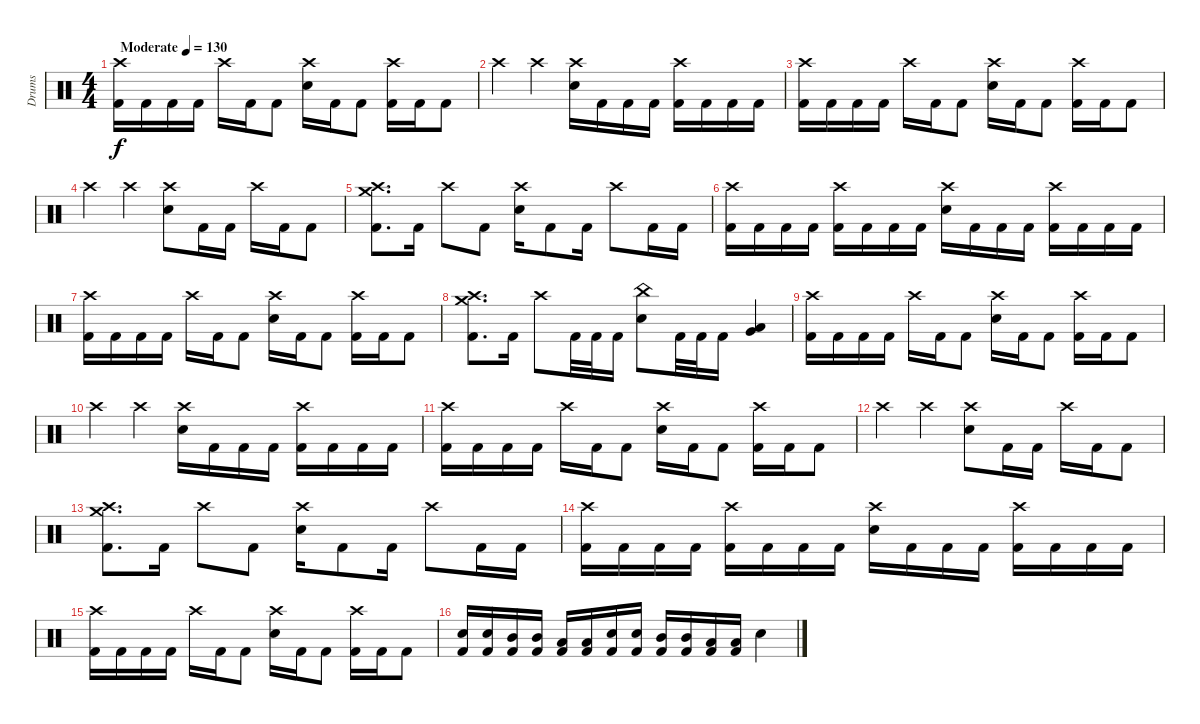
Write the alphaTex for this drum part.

\track ("Drums" "Drums") {instrument percussion}
\staff {score}
\articulation defaults
\ts (4 4)
\tempo (130 "Moderate")
\clef neutral
\ks c
("Crash high (hit)" "Kick (hit) 2").16{dy f} "Kick (hit) 2".16 "Kick (hit) 2".16 "Kick (hit) 2".16 "Crash high (hit)".16 "Kick (hit) 2".16 "Kick (hit) 2".8 ("Crash high (hit)" "Electric Snare (hit)").16 "Kick (hit) 2".16 "Kick (hit) 2".8 ("Crash high (hit)" "Kick (hit) 2").16 "Kick (hit) 2".16 "Kick (hit) 2".8 |
"Crash high (hit)".4 "Crash high (hit)".4 ("Crash high (hit)" "Electric Snare (hit)").16 "Kick (hit) 2".16 "Kick (hit) 2".16 "Kick (hit) 2".16 ("Crash high (hit)" "Kick (hit) 2").16 "Kick (hit) 2".16 "Kick (hit) 2".16 "Kick (hit) 2".16 |
("Crash high (hit)" "Kick (hit) 2").16 "Kick (hit) 2".16 "Kick (hit) 2".16 "Kick (hit) 2".16 "Crash high (hit)".16 "Kick (hit) 2".16 "Kick (hit) 2".8 ("Crash high (hit)" "Electric Snare (hit)").16 "Kick (hit) 2".16 "Kick (hit) 2".8 ("Crash high (hit)" "Kick (hit) 2").16 "Kick (hit) 2".16 "Kick (hit) 2".8 |
"Crash high (hit)".4 "Crash high (hit)".4 ("Crash high (hit)" "Electric Snare (hit)").8 "Kick (hit) 2".16 "Kick (hit) 2".16 "Crash high (hit)".16 "Kick (hit) 2".16 "Kick (hit) 2".8 |
("Crash high (hit)" "Crash medium (hit)" "Kick (hit) 2").8{d} "Kick (hit) 2".16 "Crash high (hit)".8 "Kick (hit) 2".8 ("Crash high (hit)" "Electric Snare (hit)").16 "Kick (hit) 2".8 "Kick (hit) 2".16 "Crash high (hit)".8 "Kick (hit) 2".16 "Kick (hit) 2".16 |
("Crash high (hit)" "Kick (hit) 2").16 "Kick (hit) 2".16 "Kick (hit) 2".16 "Kick (hit) 2".16 ("Crash high (hit)" "Kick (hit) 2").16 "Kick (hit) 2".16 "Kick (hit) 2".16 "Kick (hit) 2".16 ("Crash high (hit)" "Electric Snare (hit)").16 "Kick (hit) 2".16 "Kick (hit) 2".16 "Kick (hit) 2".16 ("Crash high (hit)" "Kick (hit) 2").16 "Kick (hit) 2".16 "Kick (hit) 2".16 "Kick (hit) 2".16 |
("Crash high (hit)" "Kick (hit) 2").16 "Kick (hit) 2".16 "Kick (hit) 2".16 "Kick (hit) 2".16 "Crash high (hit)".16 "Kick (hit) 2".16 "Kick (hit) 2".8 ("Crash high (hit)" "Electric Snare (hit)").16 "Kick (hit) 2".16 "Kick (hit) 2".8 ("Crash high (hit)" "Kick (hit) 2").16 "Kick (hit) 2".16 "Kick (hit) 2".8 |
("Crash high (hit)" "Crash medium (hit)" "Kick (hit) 2").8{d} "Kick (hit) 2".16 "Crash high (hit)".8 "Kick (hit) 2".32 "Kick (hit) 2".32 "Kick (hit) 2".16 ("China (hit)" "Electric Snare (hit)").8 "Kick (hit) 2".32 "Kick (hit) 2".32 "Kick (hit) 2".16 ("Very Low Tom (hit)" "Low Floor Tom (hit)").4 |
("Crash high (hit)" "Kick (hit) 2").16 "Kick (hit) 2".16 "Kick (hit) 2".16 "Kick (hit) 2".16 "Crash high (hit)".16 "Kick (hit) 2".16 "Kick (hit) 2".8 ("Crash high (hit)" "Electric Snare (hit)").16 "Kick (hit) 2".16 "Kick (hit) 2".8 ("Crash high (hit)" "Kick (hit) 2").16 "Kick (hit) 2".16 "Kick (hit) 2".8 |
"Crash high (hit)".4 "Crash high (hit)".4 ("Crash high (hit)" "Electric Snare (hit)").16 "Kick (hit) 2".16 "Kick (hit) 2".16 "Kick (hit) 2".16 ("Crash high (hit)" "Kick (hit) 2").16 "Kick (hit) 2".16 "Kick (hit) 2".16 "Kick (hit) 2".16 |
("Crash high (hit)" "Kick (hit) 2").16 "Kick (hit) 2".16 "Kick (hit) 2".16 "Kick (hit) 2".16 "Crash high (hit)".16 "Kick (hit) 2".16 "Kick (hit) 2".8 ("Crash high (hit)" "Electric Snare (hit)").16 "Kick (hit) 2".16 "Kick (hit) 2".8 ("Crash high (hit)" "Kick (hit) 2").16 "Kick (hit) 2".16 "Kick (hit) 2".8 |
"Crash high (hit)".4 "Crash high (hit)".4 ("Crash high (hit)" "Electric Snare (hit)").8 "Kick (hit) 2".16 "Kick (hit) 2".16 "Crash high (hit)".16 "Kick (hit) 2".16 "Kick (hit) 2".8 |
("Crash high (hit)" "Crash medium (hit)" "Kick (hit) 2").8{d} "Kick (hit) 2".16 "Crash high (hit)".8 "Kick (hit) 2".8 ("Crash high (hit)" "Electric Snare (hit)").16 "Kick (hit) 2".8 "Kick (hit) 2".16 "Crash high (hit)".8 "Kick (hit) 2".16 "Kick (hit) 2".16 |
("Crash high (hit)" "Kick (hit) 2").16 "Kick (hit) 2".16 "Kick (hit) 2".16 "Kick (hit) 2".16 ("Crash high (hit)" "Kick (hit) 2").16 "Kick (hit) 2".16 "Kick (hit) 2".16 "Kick (hit) 2".16 ("Crash high (hit)" "Electric Snare (hit)").16 "Kick (hit) 2".16 "Kick (hit) 2".16 "Kick (hit) 2".16 ("Crash high (hit)" "Kick (hit) 2").16 "Kick (hit) 2".16 "Kick (hit) 2".16 "Kick (hit) 2".16 |
("Crash high (hit)" "Kick (hit) 2").16 "Kick (hit) 2".16 "Kick (hit) 2".16 "Kick (hit) 2".16 "Crash high (hit)".16 "Kick (hit) 2".16 "Kick (hit) 2".8 ("Crash high (hit)" "Electric Snare (hit)").16 "Kick (hit) 2".16 "Kick (hit) 2".8 ("Crash high (hit)" "Kick (hit) 2").16 "Kick (hit) 2".16 "Kick (hit) 2".8 |
("Electric Snare (hit)" "Kick (hit) 2").16 ("Electric Snare (hit)" "Kick (hit) 2").16 ("Mid Tom (hit)" "Kick (hit) 2").16 ("Mid Tom (hit)" "Kick (hit) 2").16 ("Low Tom (hit)" "Kick (hit) 2").16 ("Low Tom (hit)" "Kick (hit) 2").16 ("Electric Snare (hit)" "Kick (hit) 2").16 ("Electric Snare (hit)" "Kick (hit) 2").16 ("Mid Tom (hit)" "Kick (hit) 2").16 ("Mid Tom (hit)" "Kick (hit) 2").16 ("Low Tom (hit)" "Kick (hit) 2").16 ("Low Tom (hit)" "Kick (hit) 2").16 "Electric Snare (hit)".4
